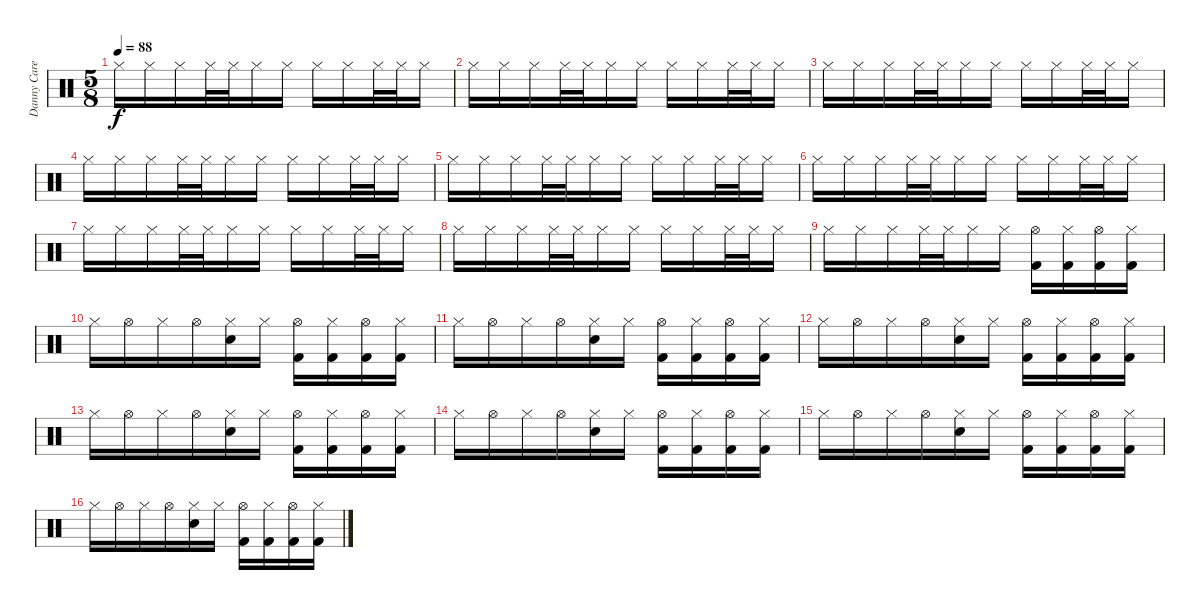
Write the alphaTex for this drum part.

\track ("Danny Carey" "Danny Care") {instrument percussion}
\staff {score}
\articulation defaults
\ts (5 8)
\tempo 88
\clef neutral
\ks c "Hi-Hat (closed)".16{dy f} "Hi-Hat (closed)".16 "Hi-Hat (closed)".16 "Hi-Hat (closed)".32 "Hi-Hat (closed)".32 "Hi-Hat (closed)".16 "Hi-Hat (closed)".16 "Hi-Hat (closed)".16 "Hi-Hat (closed)".16 "Hi-Hat (closed)".32 "Hi-Hat (closed)".32 "Hi-Hat (closed)".16
|
"Hi-Hat (closed)".16 "Hi-Hat (closed)".16 "Hi-Hat (closed)".16 "Hi-Hat (closed)".32 "Hi-Hat (closed)".32 "Hi-Hat (closed)".16 "Hi-Hat (closed)".16 "Hi-Hat (closed)".16 "Hi-Hat (closed)".16 "Hi-Hat (closed)".32 "Hi-Hat (closed)".32 "Hi-Hat (closed)".16 |
"Hi-Hat (closed)".16 "Hi-Hat (closed)".16 "Hi-Hat (closed)".16 "Hi-Hat (closed)".32 "Hi-Hat (closed)".32 "Hi-Hat (closed)".16 "Hi-Hat (closed)".16 "Hi-Hat (closed)".16 "Hi-Hat (closed)".16 "Hi-Hat (closed)".32 "Hi-Hat (closed)".32 "Hi-Hat (closed)".16 |
"Hi-Hat (closed)".16 "Hi-Hat (closed)".16 "Hi-Hat (closed)".16 "Hi-Hat (closed)".32 "Hi-Hat (closed)".32 "Hi-Hat (closed)".16 "Hi-Hat (closed)".16 "Hi-Hat (closed)".16 "Hi-Hat (closed)".16 "Hi-Hat (closed)".32 "Hi-Hat (closed)".32 "Hi-Hat (closed)".16 |
"Hi-Hat (closed)".16 "Hi-Hat (closed)".16 "Hi-Hat (closed)".16 "Hi-Hat (closed)".32 "Hi-Hat (closed)".32 "Hi-Hat (closed)".16 "Hi-Hat (closed)".16 "Hi-Hat (closed)".16 "Hi-Hat (closed)".16 "Hi-Hat (closed)".32 "Hi-Hat (closed)".32 "Hi-Hat (closed)".16 |
"Hi-Hat (closed)".16 "Hi-Hat (closed)".16 "Hi-Hat (closed)".16 "Hi-Hat (closed)".32 "Hi-Hat (closed)".32 "Hi-Hat (closed)".16 "Hi-Hat (closed)".16 "Hi-Hat (closed)".16 "Hi-Hat (closed)".16 "Hi-Hat (closed)".32 "Hi-Hat (closed)".32 "Hi-Hat (closed)".16 |
"Hi-Hat (closed)".16 "Hi-Hat (closed)".16 "Hi-Hat (closed)".16 "Hi-Hat (closed)".32 "Hi-Hat (closed)".32 "Hi-Hat (closed)".16 "Hi-Hat (closed)".16 "Hi-Hat (closed)".16 "Hi-Hat (closed)".16 "Hi-Hat (closed)".32 "Hi-Hat (closed)".32 "Hi-Hat (closed)".16 |
"Hi-Hat (closed)".16 "Hi-Hat (closed)".16 "Hi-Hat (closed)".16 "Hi-Hat (closed)".32 "Hi-Hat (closed)".32 "Hi-Hat (closed)".16 "Hi-Hat (closed)".16 "Hi-Hat (closed)".16 "Hi-Hat (closed)".16 "Hi-Hat (closed)".32 "Hi-Hat (closed)".32 "Hi-Hat (closed)".16 |
"Hi-Hat (closed)".16 "Hi-Hat (closed)".16 "Hi-Hat (closed)".16 "Hi-Hat (closed)".32 "Hi-Hat (closed)".32 "Hi-Hat (closed)".16 "Hi-Hat (closed)".16 ("Hi-Hat (open)" "Kick (hit) 2").16 ("Hi-Hat (closed)" "Kick (hit) 2").16 ("Hi-Hat (open)" "Kick (hit) 2").16 ("Hi-Hat (closed)" "Kick (hit) 2").16 |
"Hi-Hat (closed)".16 "Hi-Hat (open)".16 "Hi-Hat (closed)".16 "Hi-Hat (open)".16 ("Hi-Hat (closed)" "Electric Snare (hit)").16 "Hi-Hat (closed)".16 ("Hi-Hat (open)" "Kick (hit) 2").16 ("Hi-Hat (closed)" "Kick (hit) 2").16 ("Hi-Hat (open)" "Kick (hit) 2").16 ("Hi-Hat (closed)" "Kick (hit) 2").16 |
"Hi-Hat (closed)".16 "Hi-Hat (open)".16 "Hi-Hat (closed)".16 "Hi-Hat (open)".16 ("Hi-Hat (closed)" "Electric Snare (hit)").16 "Hi-Hat (closed)".16 ("Hi-Hat (open)" "Kick (hit) 2").16 ("Hi-Hat (closed)" "Kick (hit) 2").16 ("Hi-Hat (open)" "Kick (hit) 2").16 ("Hi-Hat (closed)" "Kick (hit) 2").16 |
"Hi-Hat (closed)".16 "Hi-Hat (open)".16 "Hi-Hat (closed)".16 "Hi-Hat (open)".16 ("Hi-Hat (closed)" "Electric Snare (hit)").16 "Hi-Hat (closed)".16 ("Hi-Hat (open)" "Kick (hit) 2").16 ("Hi-Hat (closed)" "Kick (hit) 2").16 ("Hi-Hat (open)" "Kick (hit) 2").16 ("Hi-Hat (closed)" "Kick (hit) 2").16 |
"Hi-Hat (closed)".16 "Hi-Hat (open)".16 "Hi-Hat (closed)".16 "Hi-Hat (open)".16 ("Hi-Hat (closed)" "Electric Snare (hit)").16 "Hi-Hat (closed)".16 ("Hi-Hat (open)" "Kick (hit) 2").16 ("Hi-Hat (closed)" "Kick (hit) 2").16 ("Hi-Hat (open)" "Kick (hit) 2").16 ("Hi-Hat (closed)" "Kick (hit) 2").16 |
"Hi-Hat (closed)".16 "Hi-Hat (open)".16 "Hi-Hat (closed)".16 "Hi-Hat (open)".16 ("Hi-Hat (closed)" "Electric Snare (hit)").16 "Hi-Hat (closed)".16 ("Hi-Hat (open)" "Kick (hit) 2").16 ("Hi-Hat (closed)" "Kick (hit) 2").16 ("Hi-Hat (open)" "Kick (hit) 2").16 ("Hi-Hat (closed)" "Kick (hit) 2").16 |
"Hi-Hat (closed)".16 "Hi-Hat (open)".16 "Hi-Hat (closed)".16 "Hi-Hat (open)".16 ("Hi-Hat (closed)" "Electric Snare (hit)").16 "Hi-Hat (closed)".16 ("Hi-Hat (open)" "Kick (hit) 2").16 ("Hi-Hat (closed)" "Kick (hit) 2").16 ("Hi-Hat (open)" "Kick (hit) 2").16 ("Hi-Hat (closed)" "Kick (hit) 2").16 |
"Hi-Hat (closed)".16 "Hi-Hat (open)".16 "Hi-Hat (closed)".16 "Hi-Hat (open)".16 ("Hi-Hat (closed)" "Electric Snare (hit)").16 "Hi-Hat (closed)".16 ("Hi-Hat (open)" "Kick (hit) 2").16 ("Hi-Hat (closed)" "Kick (hit) 2").16 ("Hi-Hat (open)" "Kick (hit) 2").16 ("Hi-Hat (closed)" "Kick (hit) 2").16
